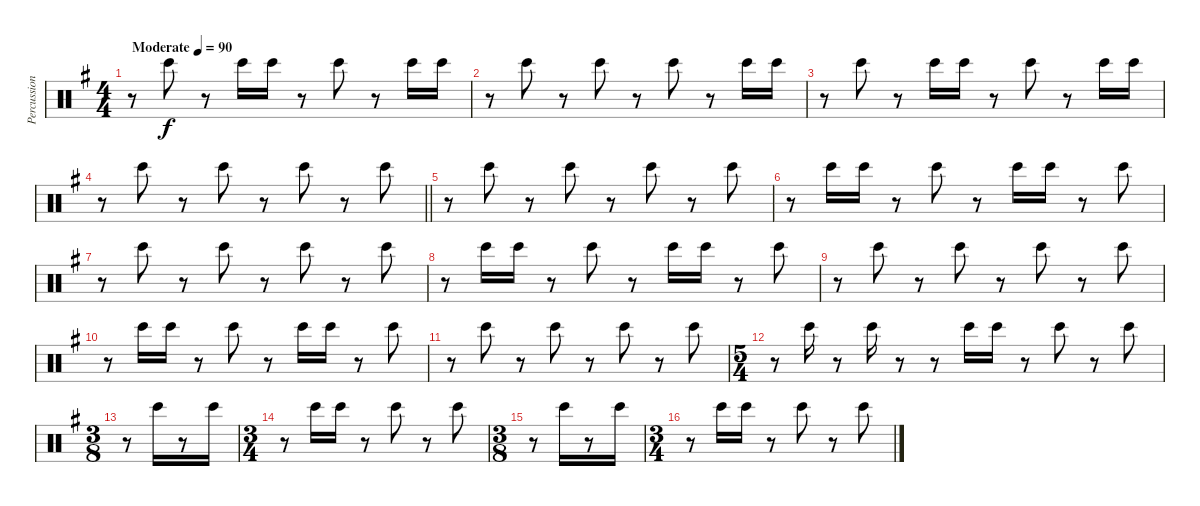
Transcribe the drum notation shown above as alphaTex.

\track ("Percussion" "Percussion") {instrument percussion}
\staff {score}
\articulation defaults
\ts (4 4)
\tempo (90 "Moderate")
\clef neutral
\ks g
r.8{dy f} "Bongo High (hit)".8 r.8 "Bongo High (hit)".16 "Bongo High (hit)".16 r.8 "Bongo High (hit)".8 r.8 "Bongo High (hit)".16 "Bongo High (hit)".16 |
r.8 "Bongo High (hit)".8 r.8 "Bongo High (hit)".8 r.8 "Bongo High (hit)".8 r.8 "Bongo High (hit)".16 "Bongo High (hit)".16 |
r.8 "Bongo High (hit)".8 r.8 "Bongo High (hit)".16 "Bongo High (hit)".16 r.8 "Bongo High (hit)".8 r.8 "Bongo High (hit)".16 "Bongo High (hit)".16 |
\barLineRight lightlight
r.8 "Bongo High (hit)".8 r.8 "Bongo High (hit)".8 r.8 "Bongo High (hit)".8 r.8 "Bongo High (hit)".8 |
r.8 "Bongo High (hit)".8 r.8 "Bongo High (hit)".8 r.8 "Bongo High (hit)".8 r.8 "Bongo High (hit)".8 |
r.8 "Bongo High (hit)".16 "Bongo High (hit)".16 r.8 "Bongo High (hit)".8 r.8 "Bongo High (hit)".16 "Bongo High (hit)".16 r.8 "Bongo High (hit)".8 |
r.8 "Bongo High (hit)".8 r.8 "Bongo High (hit)".8 r.8 "Bongo High (hit)".8 r.8 "Bongo High (hit)".8 |
r.8 "Bongo High (hit)".16 "Bongo High (hit)".16 r.8 "Bongo High (hit)".8 r.8 "Bongo High (hit)".16 "Bongo High (hit)".16 r.8 "Bongo High (hit)".8 |
r.8 "Bongo High (hit)".8 r.8 "Bongo High (hit)".8 r.8 "Bongo High (hit)".8 r.8 "Bongo High (hit)".8 |
r.8 "Bongo High (hit)".16 "Bongo High (hit)".16 r.8 "Bongo High (hit)".8 r.8 "Bongo High (hit)".16 "Bongo High (hit)".16 r.8 "Bongo High (hit)".8 |
r.8 "Bongo High (hit)".8 r.8 "Bongo High (hit)".8 r.8 "Bongo High (hit)".8 r.8 "Bongo High (hit)".8 |
\ts (5 4)
r.8 "Bongo High (hit)".16 r.8 "Bongo High (hit)".16 r.8 r.8 "Bongo High (hit)".16 "Bongo High (hit)".16 r.8 "Bongo High (hit)".8 r.8 "Bongo High (hit)".8 |
\ts (3 8)
r.8 "Bongo High (hit)".16 r.8 "Bongo High (hit)".16 |
\ts (3 4)
r.8 "Bongo High (hit)".16 "Bongo High (hit)".16 r.8 "Bongo High (hit)".8 r.8 "Bongo High (hit)".8 |
\ts (3 8)
r.8 "Bongo High (hit)".16 r.8 "Bongo High (hit)".16 |
\ts (3 4)
r.8 "Bongo High (hit)".16 "Bongo High (hit)".16 r.8 "Bongo High (hit)".8 r.8 "Bongo High (hit)".8
